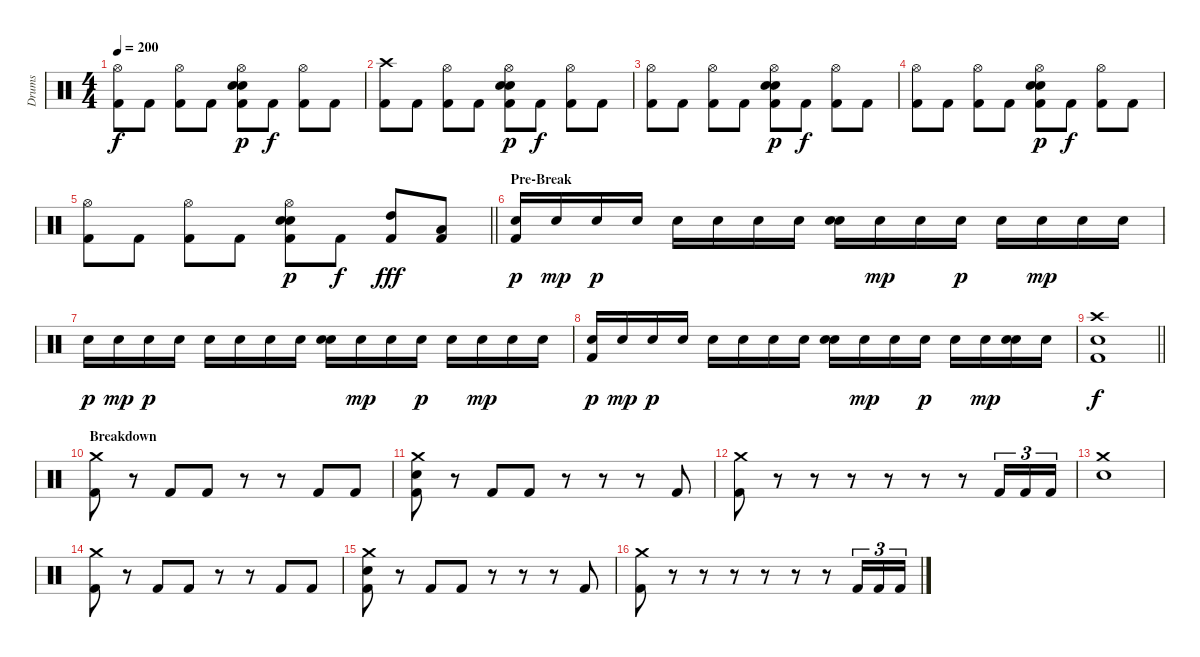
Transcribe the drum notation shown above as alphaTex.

\track ("Drums" "Drums") {instrument percussion}
\staff {score}
\articulation defaults
\ts (4 4)
\tempo 200
\clef neutral
\ks c
("Hi-Hat (open)" "Kick (hit) 2").8{dy f} "Kick (hit) 2".8 ("Hi-Hat (open)" "Kick (hit) 2").8 "Kick (hit) 2".8 ("Hi-Hat (open)" "Snare (hit) 2" "Electric Snare (hit)" "Kick (hit) 2").8{dy p} "Kick (hit) 2".8{dy f} ("Hi-Hat (open)" "Kick (hit) 2").8 "Kick (hit) 2".8 |
("Crash high (hit)" "Kick (hit) 2").8 "Kick (hit) 2".8 ("Hi-Hat (open)" "Kick (hit) 2").8 "Kick (hit) 2".8 ("Hi-Hat (open)" "Snare (hit) 2" "Electric Snare (hit)" "Kick (hit) 2").8{dy p} "Kick (hit) 2".8{dy f} ("Hi-Hat (open)" "Kick (hit) 2").8 "Kick (hit) 2".8 |
("Hi-Hat (open)" "Kick (hit) 2").8 "Kick (hit) 2".8 ("Hi-Hat (open)" "Kick (hit) 2").8 "Kick (hit) 2".8 ("Hi-Hat (open)" "Snare (hit) 2" "Electric Snare (hit)" "Kick (hit) 2").8{dy p} "Kick (hit) 2".8{dy f} ("Hi-Hat (open)" "Kick (hit) 2").8 "Kick (hit) 2".8 |
("Hi-Hat (open)" "Kick (hit) 2").8 "Kick (hit) 2".8 ("Hi-Hat (open)" "Kick (hit) 2").8 "Kick (hit) 2".8 ("Hi-Hat (open)" "Snare (hit) 2" "Electric Snare (hit)" "Kick (hit) 2").8{dy p} "Kick (hit) 2".8{dy f} ("Hi-Hat (open)" "Kick (hit) 2").8 "Kick (hit) 2".8 |
\barLineRight lightlight
("Hi-Hat (open)" "Kick (hit) 2").8 "Kick (hit) 2".8 ("Hi-Hat (open)" "Kick (hit) 2").8 "Kick (hit) 2".8 ("Hi-Hat (open)" "Snare (hit) 2" "Electric Snare (hit)" "Kick (hit) 2").8{dy p} "Kick (hit) 2".8{dy f} ("High Tom (hit)" "Kick (hit) 2").8{dy fff} ("Low Tom (hit)" "Kick (hit) 2").8 |
\section ("" "Pre-Break")
("Snare (hit) 2" "Kick (hit) 2").16{dy p} "Snare (hit) 2".16{dy mp} "Snare (hit) 2".16{dy p} "Snare (hit) 2".16 "Snare (hit) 2".16 "Snare (hit) 2".16 "Snare (hit) 2".16 "Snare (hit) 2".16 ("Electric Snare (hit)" "Snare (hit) 2").16 "Snare (hit) 2".16{dy mp} "Snare (hit) 2".16 "Snare (hit) 2".16{dy p} "Snare (hit) 2".16 "Snare (hit) 2".16{dy mp} "Snare (hit) 2".16 "Snare (hit) 2".16 |
"Snare (hit) 2".16{dy p} "Snare (hit) 2".16{dy mp} "Snare (hit) 2".16{dy p} "Snare (hit) 2".16 "Snare (hit) 2".16 "Snare (hit) 2".16 "Snare (hit) 2".16 "Snare (hit) 2".16 ("Electric Snare (hit)" "Snare (hit) 2").16 "Snare (hit) 2".16{dy mp} "Snare (hit) 2".16 "Snare (hit) 2".16{dy p} "Snare (hit) 2".16 "Snare (hit) 2".16{dy mp} "Snare (hit) 2".16 "Snare (hit) 2".16 |
("Snare (hit) 2" "Kick (hit) 2").16{dy p} "Snare (hit) 2".16{dy mp} "Snare (hit) 2".16{dy p} "Snare (hit) 2".16 "Snare (hit) 2".16 "Snare (hit) 2".16 "Snare (hit) 2".16 "Snare (hit) 2".16 ("Electric Snare (hit)" "Snare (hit) 2").16 "Snare (hit) 2".16{dy mp} "Snare (hit) 2".16 "Snare (hit) 2".16{dy p} "Snare (hit) 2".16 "Snare (hit) 2".16{dy mp} ("Electric Snare (hit)" "Snare (hit) 2").16 "Snare (hit) 2".16 |
\barLineRight lightlight
("Crash high (hit)" "Electric Snare (hit)" "Kick (hit) 2").1{dy f} |
\section ("" "Breakdown")
("Crash medium (hit)" "Kick (hit) 2").8 r.8 "Kick (hit) 2".8 "Kick (hit) 2".8 r.8 r.8 "Kick (hit) 2".8 "Kick (hit) 2".8 |
("Crash medium (hit)" "Electric Snare (hit)" "Kick (hit) 2").8 r.8 "Kick (hit) 2".8 "Kick (hit) 2".8 r.8 r.8 r.8 "Kick (hit) 2".8 |
("Crash medium (hit)" "Kick (hit) 2").8 r.8 r.8 r.8 r.8 r.8 r.8 "Kick (hit) 2".16{tu (3 2)} "Kick (hit) 2".16{tu (3 2)} "Kick (hit) 2".16{tu (3 2)} |
("Crash medium (hit)" "Electric Snare (hit)").1 |
("Crash medium (hit)" "Kick (hit) 2").8 r.8 "Kick (hit) 2".8 "Kick (hit) 2".8 r.8 r.8 "Kick (hit) 2".8 "Kick (hit) 2".8 |
("Crash medium (hit)" "Electric Snare (hit)" "Kick (hit) 2").8 r.8 "Kick (hit) 2".8 "Kick (hit) 2".8 r.8 r.8 r.8 "Kick (hit) 2".8 |
("Crash medium (hit)" "Kick (hit) 2").8 r.8 r.8 r.8 r.8 r.8 r.8 "Kick (hit) 2".16{tu (3 2)} "Kick (hit) 2".16{tu (3 2)} "Kick (hit) 2".16{tu (3 2)}
